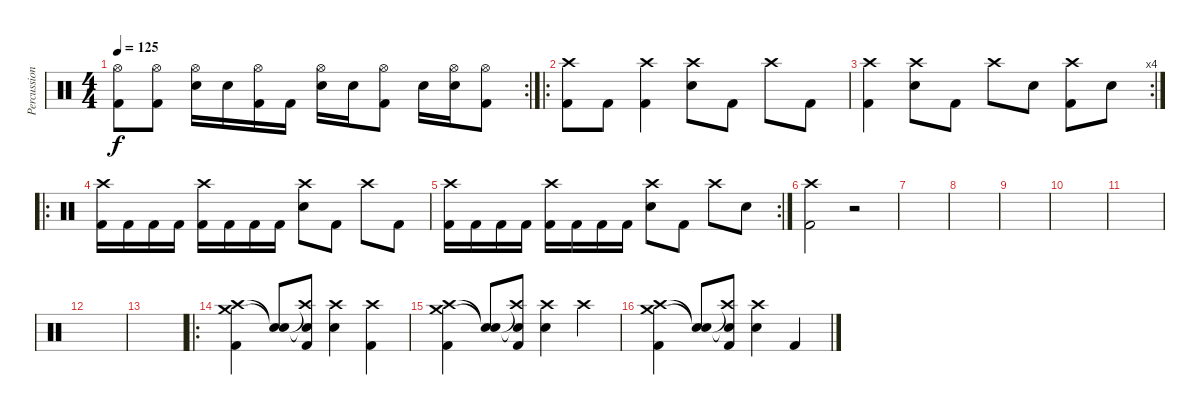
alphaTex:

\track ("Percussion" "Percussion") {instrument percussion}
\staff {score}
\articulation defaults
\rc 2
\ts (4 4)
\tempo 125
\clef neutral
\ks c
("Hi-Hat (open)" "Kick (hit) 2").8{dy f} ("Hi-Hat (open)" "Kick (hit) 2").8 ("Hi-Hat (open)" "Electric Snare (hit)").16 "Electric Snare (hit)".16 ("Hi-Hat (open)" "Kick (hit) 2").16 "Kick (hit) 2".16 ("Hi-Hat (open)" "Electric Snare (hit)").16 "Electric Snare (hit)".16 ("Hi-Hat (open)" "Kick (hit) 2").8 "Electric Snare (hit)".16 ("Hi-Hat (open)" "Electric Snare (hit)").16 ("Hi-Hat (open)" "Kick (hit) 2").8 |
\ro
("Crash high (hit)" "Kick (hit) 2").8 "Kick (hit) 2".8 ("Crash high (hit)" "Kick (hit) 2").4 ("Crash high (hit)" "Electric Snare (hit)").8 "Kick (hit) 2".8 "Crash high (hit)".8 "Kick (hit) 2".8 |
\rc 4
("Crash high (hit)" "Kick (hit) 2").4 ("Crash high (hit)" "Electric Snare (hit)").8 "Kick (hit) 2".8 "Crash high (hit)".8 "Electric Snare (hit)".8 ("Crash high (hit)" "Kick (hit) 2").8 "Electric Snare (hit)".8 |
\ro
("Crash high (hit)" "Kick (hit) 2").16 "Kick (hit) 2".16 "Kick (hit) 2".16 "Kick (hit) 2".16 ("Crash high (hit)" "Kick (hit) 2").16 "Kick (hit) 2".16 "Kick (hit) 2".16 "Kick (hit) 2".16 ("Crash high (hit)" "Electric Snare (hit)").8 "Kick (hit) 2".8 "Crash high (hit)".8 "Kick (hit) 2".8 |
\rc 2
("Crash high (hit)" "Kick (hit) 2").16 "Kick (hit) 2".16 "Kick (hit) 2".16 "Kick (hit) 2".16 ("Crash high (hit)" "Kick (hit) 2").16 "Kick (hit) 2".16 "Kick (hit) 2".16 "Kick (hit) 2".16 ("Crash high (hit)" "Electric Snare (hit)").8 "Kick (hit) 2".8 "Crash high (hit)".8 "Electric Snare (hit)".8 |
("Crash high (hit)" "Kick (hit) 2").2 r.2 |
|
|
|
|
|
|
|
\ro
("Crash medium (hit)" "Crash high (hit)" "Kick (hit) 2").4 ("Snare (hit)"{t} "Snare (hit)"{t}).8 ("Snare (hit)"{t} "Crash high (hit)"{t} "Kick (hit) 2").8 ("Crash high (hit)" "Electric Snare (hit)").4 ("Crash high (hit)" "Kick (hit) 2").4 |
("Crash medium (hit)" "Crash high (hit)" "Kick (hit) 2").4 ("Snare (hit)"{t} "Snare (hit)"{t}).8 ("Snare (hit)"{t} "Crash high (hit)"{t} "Kick (hit) 2").8 ("Crash high (hit)" "Electric Snare (hit)").4 "Crash high (hit)".4 |
("Crash medium (hit)" "Crash high (hit)" "Kick (hit) 2").4 ("Snare (hit)"{t} "Snare (hit)"{t}).8 ("Snare (hit)"{t} "Crash high (hit)"{t} "Kick (hit) 2").8 ("Crash high (hit)" "Electric Snare (hit)").4 "Kick (hit) 2".4
